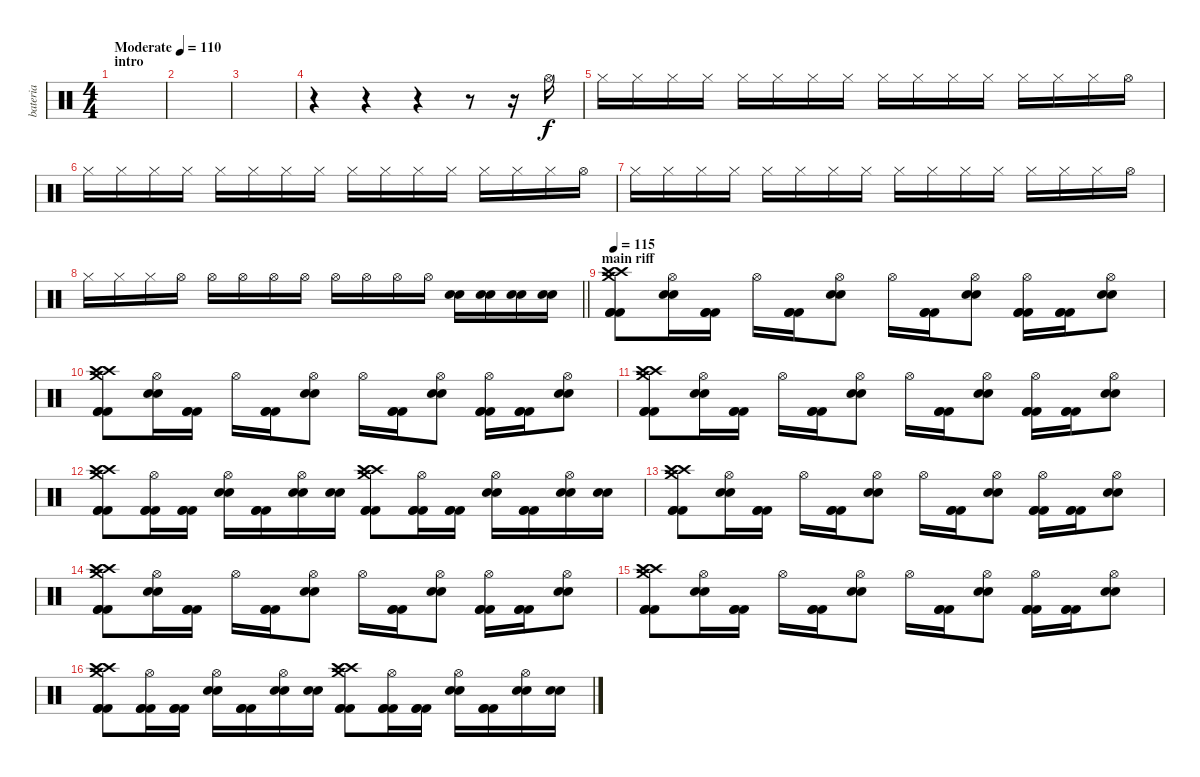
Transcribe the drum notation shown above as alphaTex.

\track ("bateria" "bateria") {instrument percussion}
\staff {score}
\articulation defaults
\ts (4 4)
\section ("" "intro")
\tempo (110 "Moderate")
\clef neutral
\ks c
|
|
|
r.4 r.4 r.4 r.8 r.16 "Hi-Hat (open)".16 |
"Hi-Hat (closed)".16 "Hi-Hat (closed)".16 "Hi-Hat (closed)".16 "Hi-Hat (closed)".16 "Hi-Hat (closed)".16 "Hi-Hat (closed)".16 "Hi-Hat (closed)".16 "Hi-Hat (closed)".16 "Hi-Hat (closed)".16 "Hi-Hat (closed)".16 "Hi-Hat (closed)".16 "Hi-Hat (closed)".16 "Hi-Hat (closed)".16 "Hi-Hat (closed)".16 "Hi-Hat (closed)".16 "Hi-Hat (open)".16 |
"Hi-Hat (closed)".16 "Hi-Hat (closed)".16 "Hi-Hat (closed)".16 "Hi-Hat (closed)".16 "Hi-Hat (closed)".16 "Hi-Hat (closed)".16 "Hi-Hat (closed)".16 "Hi-Hat (closed)".16 "Hi-Hat (closed)".16 "Hi-Hat (closed)".16 "Hi-Hat (closed)".16 "Hi-Hat (closed)".16 "Hi-Hat (closed)".16 "Hi-Hat (closed)".16 "Hi-Hat (closed)".16 "Hi-Hat (open)".16 |
"Hi-Hat (closed)".16 "Hi-Hat (closed)".16 "Hi-Hat (closed)".16 "Hi-Hat (closed)".16 "Hi-Hat (closed)".16 "Hi-Hat (closed)".16 "Hi-Hat (closed)".16 "Hi-Hat (closed)".16 "Hi-Hat (closed)".16 "Hi-Hat (closed)".16 "Hi-Hat (closed)".16 "Hi-Hat (closed)".16 "Hi-Hat (closed)".16 "Hi-Hat (closed)".16 "Hi-Hat (closed)".16 "Hi-Hat (open)".16 |
\barLineRight lightlight "Hi-Hat (closed)".16 "Hi-Hat (closed)".16 "Hi-Hat (closed)".16 "Hi-Hat (open)".16 "Hi-Hat (open)".16 "Hi-Hat (open)".16 "Hi-Hat (open)".16 "Hi-Hat (open)".16 "Hi-Hat (open)".16 "Hi-Hat (open)".16 "Hi-Hat (open)".16 "Hi-Hat (open)".16
("Electric Snare (hit)" "Electric Snare (hit)").16 ("Electric Snare (hit)" "Electric Snare (hit)").16 ("Electric Snare (hit)" "Electric Snare (hit)").16 ("Electric Snare (hit)" "Electric Snare (hit)").16 |
\section ("" "main riff")
\tempo 115
("Crash high (hit)" "Crash medium (hit)" "Crash high (hit)" "Kick (hit) 2" "Kick (hit) 2" "Kick (hit) 2").8 ("Hi-Hat (open)" "Electric Snare (hit)" "Electric Snare (hit)").16 ("Kick (hit) 2" "Kick (hit) 2" "Kick (hit) 2").16 "Hi-Hat (open)".16 ("Kick (hit) 2" "Kick (hit) 2" "Kick (hit) 2").16 ("Hi-Hat (open)" "Electric Snare (hit)" "Electric Snare (hit)").8 "Hi-Hat (open)".16 ("Kick (hit) 2" "Kick (hit) 2" "Kick (hit) 2").16 ("Hi-Hat (open)" "Electric Snare (hit)" "Electric Snare (hit)").8 ("Hi-Hat (open)" "Kick (hit) 2" "Kick (hit) 2" "Kick (hit) 2").16 ("Kick (hit) 2" "Kick (hit) 2" "Kick (hit) 2").16 ("Hi-Hat (open)" "Electric Snare (hit)" "Electric Snare (hit)").8 |
("Crash high (hit)" "Crash medium (hit)" "Crash high (hit)" "Kick (hit) 2" "Kick (hit) 2" "Kick (hit) 2").8 ("Hi-Hat (open)" "Electric Snare (hit)" "Electric Snare (hit)").16 ("Kick (hit) 2" "Kick (hit) 2" "Kick (hit) 2").16 "Hi-Hat (open)".16 ("Kick (hit) 2" "Kick (hit) 2" "Kick (hit) 2").16 ("Hi-Hat (open)" "Electric Snare (hit)" "Electric Snare (hit)").8 "Hi-Hat (open)".16 ("Kick (hit) 2" "Kick (hit) 2" "Kick (hit) 2").16 ("Hi-Hat (open)" "Electric Snare (hit)" "Electric Snare (hit)").8 ("Hi-Hat (open)" "Kick (hit) 2" "Kick (hit) 2" "Kick (hit) 2").16 ("Kick (hit) 2" "Kick (hit) 2" "Kick (hit) 2").16 ("Hi-Hat (open)" "Electric Snare (hit)" "Electric Snare (hit)").8 |
("Crash high (hit)" "Crash medium (hit)" "Crash high (hit)" "Kick (hit) 2" "Kick (hit) 2" "Kick (hit) 2").8 ("Hi-Hat (open)" "Electric Snare (hit)" "Electric Snare (hit)").16 ("Kick (hit) 2" "Kick (hit) 2" "Kick (hit) 2").16 "Hi-Hat (open)".16 ("Kick (hit) 2" "Kick (hit) 2" "Kick (hit) 2").16 ("Hi-Hat (open)" "Electric Snare (hit)" "Electric Snare (hit)").8 "Hi-Hat (open)".16 ("Kick (hit) 2" "Kick (hit) 2" "Kick (hit) 2").16 ("Hi-Hat (open)" "Electric Snare (hit)" "Electric Snare (hit)").8 ("Hi-Hat (open)" "Kick (hit) 2" "Kick (hit) 2" "Kick (hit) 2").16 ("Kick (hit) 2" "Kick (hit) 2" "Kick (hit) 2").16 ("Hi-Hat (open)" "Electric Snare (hit)" "Electric Snare (hit)").8 |
("Crash high (hit)" "Crash medium (hit)" "Crash high (hit)" "Kick (hit) 2" "Kick (hit) 2" "Kick (hit) 2").8 ("Hi-Hat (open)" "Kick (hit) 2" "Kick (hit) 2" "Kick (hit) 2").16 ("Kick (hit) 2" "Kick (hit) 2" "Kick (hit) 2").16 ("Hi-Hat (open)" "Electric Snare (hit)" "Electric Snare (hit)").16 ("Kick (hit) 2" "Kick (hit) 2" "Kick (hit) 2").16 ("Hi-Hat (open)" "Electric Snare (hit)" "Electric Snare (hit)").16 ("Electric Snare (hit)" "Electric Snare (hit)").16 ("Crash high (hit)" "Crash medium (hit)" "Crash high (hit)" "Kick (hit) 2" "Kick (hit) 2" "Kick (hit) 2").8 ("Hi-Hat (open)" "Kick (hit) 2" "Kick (hit) 2" "Kick (hit) 2").16 ("Kick (hit) 2" "Kick (hit) 2" "Kick (hit) 2").16 ("Hi-Hat (open)" "Electric Snare (hit)" "Electric Snare (hit)").16 ("Kick (hit) 2" "Kick (hit) 2" "Kick (hit) 2").16 ("Hi-Hat (open)" "Electric Snare (hit)" "Electric Snare (hit)").16 ("Electric Snare (hit)" "Electric Snare (hit)").16 |
("Crash high (hit)" "Crash medium (hit)" "Crash high (hit)" "Kick (hit) 2" "Kick (hit) 2" "Kick (hit) 2").8 ("Hi-Hat (open)" "Electric Snare (hit)" "Electric Snare (hit)").16 ("Kick (hit) 2" "Kick (hit) 2" "Kick (hit) 2").16 "Hi-Hat (open)".16 ("Kick (hit) 2" "Kick (hit) 2" "Kick (hit) 2").16 ("Hi-Hat (open)" "Electric Snare (hit)" "Electric Snare (hit)").8 "Hi-Hat (open)".16 ("Kick (hit) 2" "Kick (hit) 2" "Kick (hit) 2").16 ("Hi-Hat (open)" "Electric Snare (hit)" "Electric Snare (hit)").8 ("Hi-Hat (open)" "Kick (hit) 2" "Kick (hit) 2" "Kick (hit) 2").16 ("Kick (hit) 2" "Kick (hit) 2" "Kick (hit) 2").16 ("Hi-Hat (open)" "Electric Snare (hit)" "Electric Snare (hit)").8 |
("Crash high (hit)" "Crash medium (hit)" "Crash high (hit)" "Kick (hit) 2" "Kick (hit) 2" "Kick (hit) 2").8 ("Hi-Hat (open)" "Electric Snare (hit)" "Electric Snare (hit)").16 ("Kick (hit) 2" "Kick (hit) 2" "Kick (hit) 2").16 "Hi-Hat (open)".16 ("Kick (hit) 2" "Kick (hit) 2" "Kick (hit) 2").16 ("Hi-Hat (open)" "Electric Snare (hit)" "Electric Snare (hit)").8 "Hi-Hat (open)".16 ("Kick (hit) 2" "Kick (hit) 2" "Kick (hit) 2").16 ("Hi-Hat (open)" "Electric Snare (hit)" "Electric Snare (hit)").8 ("Hi-Hat (open)" "Kick (hit) 2" "Kick (hit) 2" "Kick (hit) 2").16 ("Kick (hit) 2" "Kick (hit) 2" "Kick (hit) 2").16 ("Hi-Hat (open)" "Electric Snare (hit)" "Electric Snare (hit)").8 |
("Crash high (hit)" "Crash medium (hit)" "Crash high (hit)" "Kick (hit) 2" "Kick (hit) 2" "Kick (hit) 2").8 ("Hi-Hat (open)" "Electric Snare (hit)" "Electric Snare (hit)").16 ("Kick (hit) 2" "Kick (hit) 2" "Kick (hit) 2").16 "Hi-Hat (open)".16 ("Kick (hit) 2" "Kick (hit) 2" "Kick (hit) 2").16 ("Hi-Hat (open)" "Electric Snare (hit)" "Electric Snare (hit)").8 "Hi-Hat (open)".16 ("Kick (hit) 2" "Kick (hit) 2" "Kick (hit) 2").16 ("Hi-Hat (open)" "Electric Snare (hit)" "Electric Snare (hit)").8 ("Hi-Hat (open)" "Kick (hit) 2" "Kick (hit) 2" "Kick (hit) 2").16 ("Kick (hit) 2" "Kick (hit) 2" "Kick (hit) 2").16 ("Hi-Hat (open)" "Electric Snare (hit)" "Electric Snare (hit)").8 |
("Crash high (hit)" "Crash medium (hit)" "Crash high (hit)" "Kick (hit) 2" "Kick (hit) 2" "Kick (hit) 2").8 ("Hi-Hat (open)" "Kick (hit) 2" "Kick (hit) 2" "Kick (hit) 2").16 ("Kick (hit) 2" "Kick (hit) 2" "Kick (hit) 2").16 ("Hi-Hat (open)" "Electric Snare (hit)" "Electric Snare (hit)").16 ("Kick (hit) 2" "Kick (hit) 2" "Kick (hit) 2").16 ("Hi-Hat (open)" "Electric Snare (hit)" "Electric Snare (hit)").16 ("Electric Snare (hit)" "Electric Snare (hit)").16 ("Crash high (hit)" "Crash medium (hit)" "Crash high (hit)" "Kick (hit) 2" "Kick (hit) 2" "Kick (hit) 2").8 ("Hi-Hat (open)" "Kick (hit) 2" "Kick (hit) 2" "Kick (hit) 2").16 ("Kick (hit) 2" "Kick (hit) 2" "Kick (hit) 2").16 ("Hi-Hat (open)" "Electric Snare (hit)" "Electric Snare (hit)").16 ("Kick (hit) 2" "Kick (hit) 2" "Kick (hit) 2").16 ("Hi-Hat (open)" "Electric Snare (hit)" "Electric Snare (hit)").16 ("Electric Snare (hit)" "Electric Snare (hit)").16
